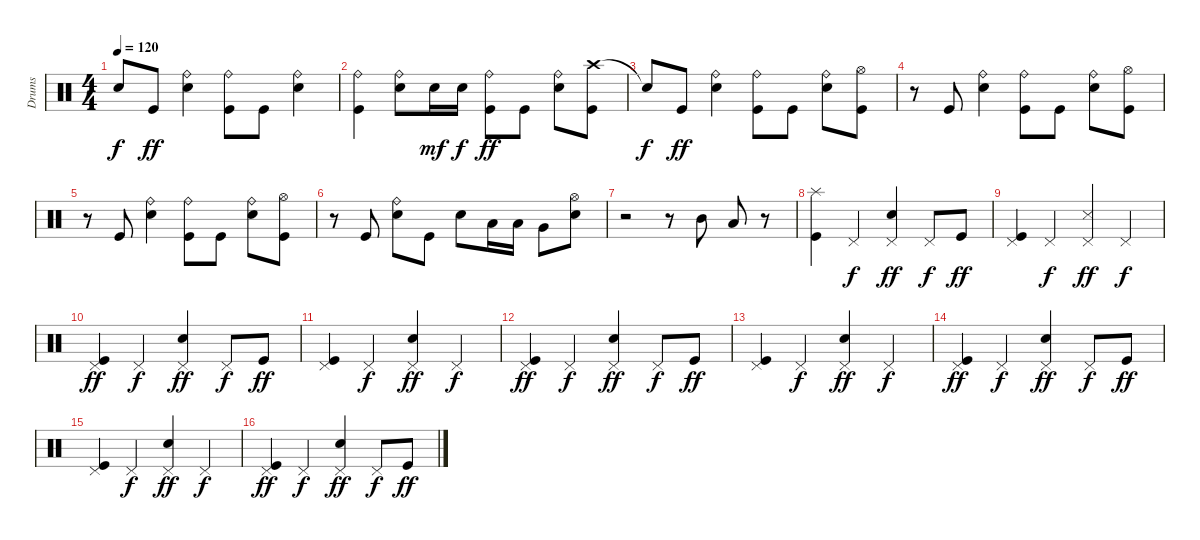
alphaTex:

\track ("Drums" "Drums") {instrument percussion}
\staff {score}
\articulation defaults
\ts (4 4)
\tempo 120
\clef neutral
\ks c "Snare (hit)"{t}.8{dy f} "Kick (hit)".8{dy ff}
("Ride (bell)" "Electric Snare (hit)").4 ("Ride (bell)" "Kick (hit)").8 "Kick (hit)".8 ("Ride (bell)" "Electric Snare (hit)").4 |
("Ride (bell)" "Kick (hit)").4 ("Ride (bell)" "Electric Snare (hit)").8 "Electric Snare (hit)".16{dy mf} "Electric Snare (hit)".16{dy f} ("Ride (bell)" "Kick (hit)").8{dy ff} "Kick (hit)".8 ("Ride (bell)" "Electric Snare (hit)").8 ("Crash high (hit)" "Kick (hit)").8 |
"Snare (hit)"{t}.8{dy f} "Kick (hit)".8{dy ff} ("Ride (bell)" "Electric Snare (hit)").4 ("Ride (bell)" "Kick (hit)").8 "Kick (hit)".8 ("Ride (bell)" "Electric Snare (hit)").8 ("Hi-Hat (open)" "Kick (hit)").8 |
r.8 "Kick (hit)".8 ("Ride (bell)" "Electric Snare (hit)").4 ("Ride (bell)" "Kick (hit)").8 "Kick (hit)".8 ("Ride (bell)" "Electric Snare (hit)").8 ("Hi-Hat (open)" "Kick (hit)").8 |
r.8 "Kick (hit)".8 ("Ride (bell)" "Electric Snare (hit)").4 ("Ride (bell)" "Kick (hit)").8 "Kick (hit)".8 ("Ride (bell)" "Electric Snare (hit)").8 ("Hi-Hat (open)" "Kick (hit)").8 |
r.8 "Kick (hit)".8 ("Ride (bell)" "Electric Snare (hit)").8 "Kick (hit)".8 "Electric Snare (hit)".8 "Low Tom (hit)".16 "Low Tom (hit)".16 "Very Low Tom (hit)".8 ("Hi-Hat (open)" "Electric Snare (hit)").8 |
r.2 r.8 "Mid Tom (hit)".8 "Low Tom (hit)".8 r.8 |
("Splash (hit)" "Kick (hit)").4 "Pedal Hi-Hat (hit)".4{dy f} ("Pedal Hi-Hat (hit)" "Electric Snare (hit)").4{dy ff} "Pedal Hi-Hat (hit)".8{dy f} "Kick (hit)".8{dy ff} |
("Pedal Hi-Hat (hit)" "Kick (hit)").4 "Pedal Hi-Hat (hit)".4{dy f} ("Pedal Hi-Hat (hit)" "Snare (side stick) 3").4{dy ff} "Pedal Hi-Hat (hit)".4{dy f} |
("Pedal Hi-Hat (hit)" "Kick (hit)").4{dy ff} "Pedal Hi-Hat (hit)".4{dy f} ("Pedal Hi-Hat (hit)" "Electric Snare (hit)").4{dy ff} "Pedal Hi-Hat (hit)".8{dy f} "Kick (hit)".8{dy ff} |
("Pedal Hi-Hat (hit)" "Kick (hit)").4 "Pedal Hi-Hat (hit)".4{dy f} ("Pedal Hi-Hat (hit)" "Electric Snare (hit)").4{dy ff} "Pedal Hi-Hat (hit)".4{dy f} |
("Pedal Hi-Hat (hit)" "Kick (hit)").4{dy ff} "Pedal Hi-Hat (hit)".4{dy f} ("Pedal Hi-Hat (hit)" "Electric Snare (hit)").4{dy ff} "Pedal Hi-Hat (hit)".8{dy f} "Kick (hit)".8{dy ff} |
("Pedal Hi-Hat (hit)" "Kick (hit)").4 "Pedal Hi-Hat (hit)".4{dy f} ("Pedal Hi-Hat (hit)" "Electric Snare (hit)").4{dy ff} "Pedal Hi-Hat (hit)".4{dy f} |
("Pedal Hi-Hat (hit)" "Kick (hit)").4{dy ff} "Pedal Hi-Hat (hit)".4{dy f} ("Pedal Hi-Hat (hit)" "Electric Snare (hit)").4{dy ff} "Pedal Hi-Hat (hit)".8{dy f} "Kick (hit)".8{dy ff} |
("Pedal Hi-Hat (hit)" "Kick (hit)").4 "Pedal Hi-Hat (hit)".4{dy f} ("Pedal Hi-Hat (hit)" "Electric Snare (hit)").4{dy ff} "Pedal Hi-Hat (hit)".4{dy f} |
("Pedal Hi-Hat (hit)" "Kick (hit)").4{dy ff} "Pedal Hi-Hat (hit)".4{dy f} ("Pedal Hi-Hat (hit)" "Electric Snare (hit)").4{dy ff} "Pedal Hi-Hat (hit)".8{dy f} "Kick (hit)".8{dy ff}
